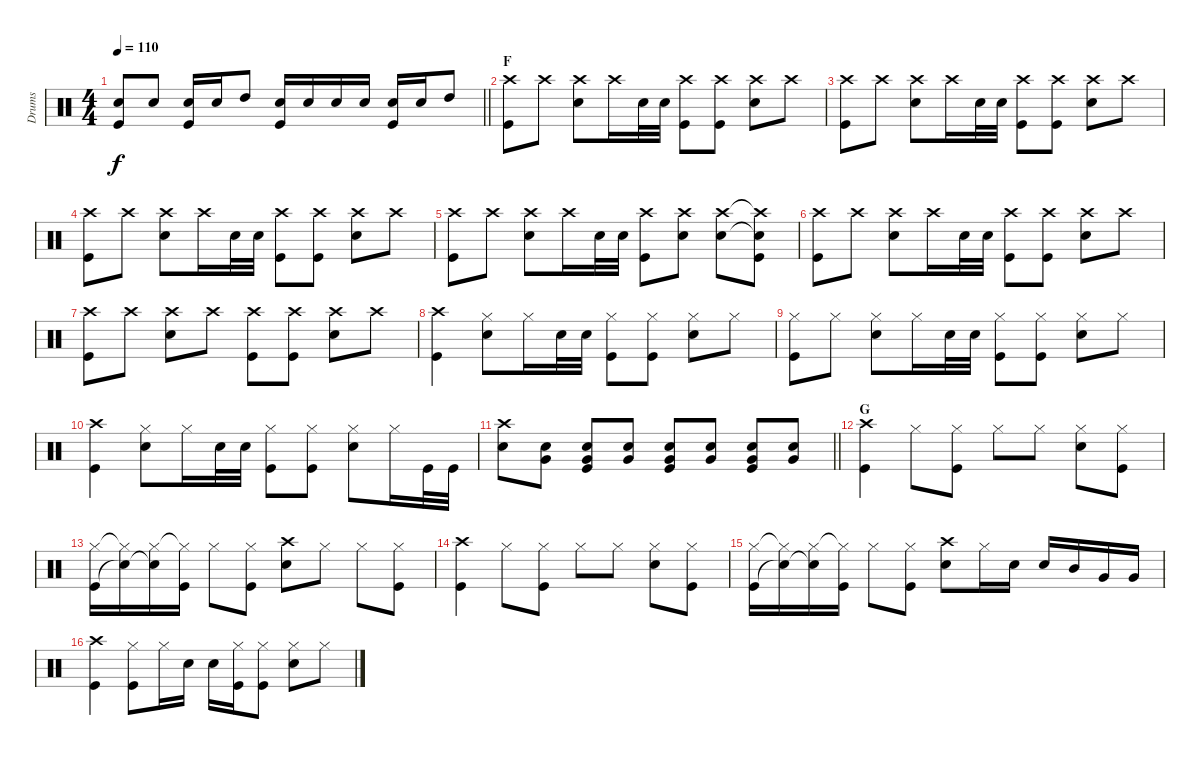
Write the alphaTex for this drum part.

\track ("Drums" "Drums") {instrument percussion}
\staff {score}
\articulation defaults
\ts (4 4)
\tempo 110
\clef neutral
\barLineRight lightlight
\ks c
("Snare (hit)"{t} "Kick (hit)").8{dy f} "Snare (hit) 2".8 ("Snare (hit) 2" "Kick (hit)").16 "Snare (hit) 2".16 "High Tom (hit)".8 ("Snare (hit) 2" "Kick (hit)").16 "Snare (hit) 2".16 "Snare (hit) 2".16 "Snare (hit) 2".16 ("Snare (hit) 2" "Kick (hit)").16 "Snare (hit) 2".16 "High Tom (hit)".8 |
\section ("" "F")
("Crash high (hit)" "Kick (hit)").8 "Crash high (hit)".8 ("Crash high (hit)" "Snare (hit) 2").8 "Crash high (hit)".16 "Snare (hit) 2".32 "Snare (hit) 2".32 ("Crash high (hit)" "Kick (hit)").8 ("Crash high (hit)" "Kick (hit)").8 ("Crash high (hit)" "Snare (hit) 2").8 "Crash high (hit)".8 |
("Crash high (hit)" "Kick (hit)").8 "Crash high (hit)".8 ("Crash high (hit)" "Snare (hit) 2").8 "Crash high (hit)".16 "Snare (hit) 2".32 "Snare (hit) 2".32 ("Crash high (hit)" "Kick (hit)").8 ("Crash high (hit)" "Kick (hit)").8 ("Crash high (hit)" "Snare (hit) 2").8 "Crash high (hit)".8 |
("Crash high (hit)" "Kick (hit)").8 "Crash high (hit)".8 ("Crash high (hit)" "Snare (hit) 2").8 "Crash high (hit)".16 "Snare (hit) 2".32 "Snare (hit) 2".32 ("Crash high (hit)" "Kick (hit)").8 ("Crash high (hit)" "Kick (hit)").8 ("Crash high (hit)" "Snare (hit) 2").8 "Crash high (hit)".8 |
("Crash high (hit)" "Kick (hit)").8 "Crash high (hit)".8 ("Crash high (hit)" "Snare (hit) 2").8 "Crash high (hit)".16 "Snare (hit) 2".32 "Snare (hit) 2".32 ("Crash high (hit)" "Kick (hit)").8 ("Crash high (hit)" "Snare (hit) 2").8 ("Crash high (hit)" "Snare (hit) 2").8 ("Crash high (hit)"{t} "Snare (hit)"{t} "Kick (hit)").8 |
("Crash high (hit)" "Kick (hit)").8 "Crash high (hit)".8 ("Crash high (hit)" "Snare (hit) 2").8 "Crash high (hit)".16 "Snare (hit) 2".32 "Snare (hit) 2".32 ("Crash high (hit)" "Kick (hit)").8 ("Crash high (hit)" "Kick (hit)").8 ("Crash high (hit)" "Snare (hit) 2").8 "Crash high (hit)".8 |
("Crash high (hit)" "Kick (hit)").8 "Crash high (hit)".8 ("Crash high (hit)" "Snare (hit) 2").8 "Crash high (hit)".8 ("Crash high (hit)" "Kick (hit)").8 ("Crash high (hit)" "Kick (hit)").8 ("Crash high (hit)" "Snare (hit) 2").8 "Crash high (hit)".8 |
("Crash high (hit)" "Kick (hit)").4 ("Hi-Hat (closed)" "Snare (hit) 2").8 "Hi-Hat (closed)".16 "Snare (hit) 2".32 "Snare (hit) 2".32 ("Hi-Hat (closed)" "Kick (hit)").8 ("Hi-Hat (closed)" "Kick (hit)").8 ("Hi-Hat (closed)" "Snare (hit) 2").8 "Hi-Hat (closed)".8 |
("Hi-Hat (closed)" "Kick (hit)").8 "Hi-Hat (closed)".8 ("Hi-Hat (closed)" "Snare (hit) 2").8 "Hi-Hat (closed)".16 "Snare (hit) 2".32 "Snare (hit) 2".32 ("Hi-Hat (closed)" "Kick (hit)").8 ("Hi-Hat (closed)" "Kick (hit)").8 ("Hi-Hat (closed)" "Snare (hit) 2").8 "Hi-Hat (closed)".8 |
("Crash high (hit)" "Kick (hit)").4 ("Hi-Hat (closed)" "Snare (hit) 2").8 "Hi-Hat (closed)".16 "Snare (hit) 2".32 "Snare (hit) 2".32 ("Hi-Hat (closed)" "Kick (hit)").8 ("Hi-Hat (closed)" "Kick (hit)").8 ("Hi-Hat (closed)" "Snare (hit) 2").8 "Hi-Hat (closed)".16 "Kick (hit)".32 "Kick (hit)".32 |
\barLineRight lightlight
("Crash high (hit)" "Snare (hit) 2").8 ("Snare (hit) 2" "Very Low Tom (hit)").8 ("Snare (hit) 2" "Very Low Tom (hit)" "Kick (hit)").8 ("Snare (hit) 2" "Very Low Tom (hit)").8 ("Snare (hit) 2" "Very Low Tom (hit)" "Kick (hit)").8 ("Snare (hit) 2" "Very Low Tom (hit)").8 ("Snare (hit) 2" "Very Low Tom (hit)" "Kick (hit)").8 ("Snare (hit) 2" "Very Low Tom (hit)").8 |
\section ("" "G")
("Crash high (hit)" "Kick (hit)").4 "Hi-Hat (closed)".8 ("Hi-Hat (closed)" "Kick (hit)").8 "Hi-Hat (closed)".8 "Hi-Hat (closed)".8 ("Hi-Hat (closed)" "Snare (hit) 2").8 ("Hi-Hat (closed)" "Kick (hit)").8 |
("Hi-Hat (closed)" "Kick (hit)").16 ("Hi-Hat (closed)"{t} "Snare (hit)"{t}).16 ("Hi-Hat (closed)" "Snare (hit)"{t}).16 ("Hi-Hat (closed)"{t} "Kick (hit)").16 "Hi-Hat (closed)".8 ("Hi-Hat (closed)" "Kick (hit)").8 ("Crash high (hit)" "Snare (hit) 2").8 "Hi-Hat (closed)".8 "Hi-Hat (closed)".8 ("Hi-Hat (closed)" "Kick (hit)").8 |
("Crash high (hit)" "Kick (hit)").4 "Hi-Hat (closed)".8 ("Hi-Hat (closed)" "Kick (hit)").8 "Hi-Hat (closed)".8 "Hi-Hat (closed)".8 ("Hi-Hat (closed)" "Snare (hit) 2").8 ("Hi-Hat (closed)" "Kick (hit)").8 |
("Hi-Hat (closed)" "Kick (hit)").16 ("Hi-Hat (closed)"{t} "Snare (hit)"{t}).16 ("Hi-Hat (closed)" "Snare (hit)"{t}).16 ("Hi-Hat (closed)"{t} "Kick (hit)").16 "Hi-Hat (closed)".8 ("Hi-Hat (closed)" "Kick (hit)").8 ("Crash high (hit)" "Snare (hit) 2").8 "Hi-Hat (closed)".16 "Snare (hit) 2".16 "Snare (hit) 2".16 "Mid Tom (hit)".16 "Very Low Tom (hit)".16 "Very Low Tom (hit)".16 |
("Crash high (hit)" "Kick (hit)").4 ("Hi-Hat (closed)" "Kick (hit)").8 "Hi-Hat (closed)".16 "Snare (hit) 2".16 "Snare (hit) 2".16 ("Hi-Hat (closed)" "Kick (hit)").16 ("Hi-Hat (closed)" "Kick (hit)").8 ("Hi-Hat (closed)" "Snare (hit) 2").8 "Hi-Hat (closed)".8
